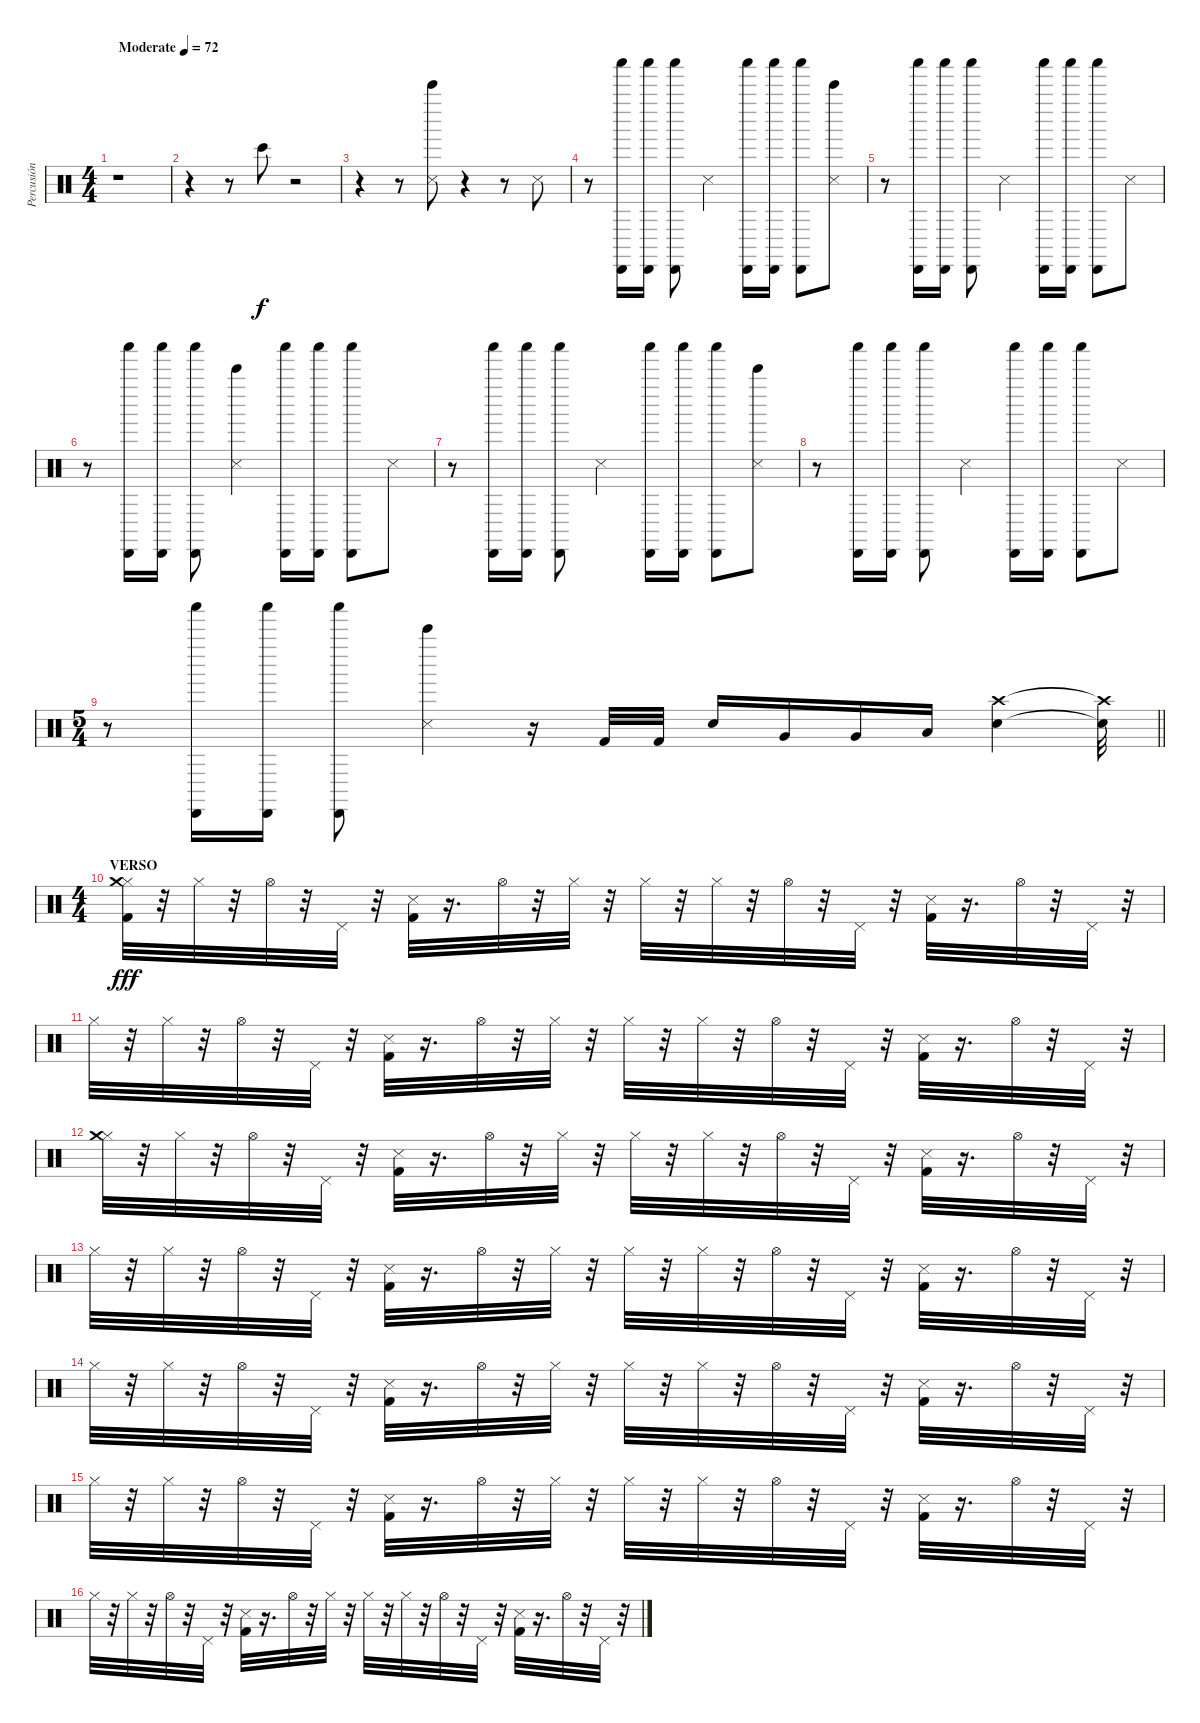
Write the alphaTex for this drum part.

\track ("Percusión" "Percusión") {instrument percussion}
\staff {score}
\articulation defaults
\ts (4 4)
\tempo (72 "Moderate")
\clef neutral
\ks c
r.1{dy f} |
r.4{volume 16} r.8 "Bongo High (hit)".8 r.2 |
r.4 r.8 ("Bell Tree (hit)" "Snare (side stick) 3").8 r.4 r.8 "Snare (side stick) 3".8 |
r.8 ("Cabasa (hit)" "Shaker (hit)").16 ("Cabasa (hit)" "Shaker (hit)").16 ("Cabasa (hit)" "Shaker (hit)").8 "Snare (side stick) 3".4 ("Shaker (hit)" "Cabasa (hit)").16 ("Shaker (hit)" "Cabasa (hit)").16 ("Shaker (hit)" "Cabasa (hit)").8 ("Snare (side stick) 3" "Bell Tree (hit)").8 |
r.8 ("Shaker (hit)" "Cabasa (hit)").16 ("Shaker (hit)" "Cabasa (hit)").16 ("Shaker (hit)" "Cabasa (hit)").8 "Snare (side stick) 3".4 ("Shaker (hit)" "Cabasa (hit)").16 ("Shaker (hit)" "Cabasa (hit)").16 ("Shaker (hit)" "Cabasa (hit)").8 "Snare (side stick) 3".8 |
r.8 ("Shaker (hit)" "Cabasa (hit)").16 ("Shaker (hit)" "Cabasa (hit)").16 ("Shaker (hit)" "Cabasa (hit)").8 ("Snare (side stick) 3" "Bell Tree (hit)").4 ("Shaker (hit)" "Cabasa (hit)").16 ("Shaker (hit)" "Cabasa (hit)").16 ("Shaker (hit)" "Cabasa (hit)").8 "Snare (side stick) 3".8 |
r.8 ("Cabasa (hit)" "Shaker (hit)").16 ("Cabasa (hit)" "Shaker (hit)").16 ("Cabasa (hit)" "Shaker (hit)").8 "Snare (side stick) 3".4 ("Shaker (hit)" "Cabasa (hit)").16 ("Shaker (hit)" "Cabasa (hit)").16 ("Shaker (hit)" "Cabasa (hit)").8 ("Snare (side stick) 3" "Bell Tree (hit)").8 |
r.8 ("Shaker (hit)" "Cabasa (hit)").16 ("Shaker (hit)" "Cabasa (hit)").16 ("Shaker (hit)" "Cabasa (hit)").8 "Snare (side stick) 3".4 ("Shaker (hit)" "Cabasa (hit)").16 ("Shaker (hit)" "Cabasa (hit)").16 ("Shaker (hit)" "Cabasa (hit)").8 "Snare (side stick) 3".8 |
\ts (5 4)
\barLineRight lightlight
r.8 ("Shaker (hit)" "Cabasa (hit)").16 ("Shaker (hit)" "Cabasa (hit)").16 ("Shaker (hit)" "Cabasa (hit)").8 ("Snare (side stick) 3" "Bell Tree (hit)").4 r.16 "Kick (hit) 2".32{volume 13} "Kick (hit) 2".32 "Snare (hit) 2".16 "Very Low Tom (hit)".16 "Very Low Tom (hit)".16 "Low Floor Tom (hit)".16 ("Crash high (hit)" "Snare (hit) 2").4 ("Crash high (hit)"{t} "Snare (hit) 2"{t}).32 |
\ts (4 4)
\section ("" "VERSO")
("Hi-Hat (closed)" "Crash medium (hit)" "Kick (hit) 2").32{dy fff} r.32 "Hi-Hat (closed)".32 r.32 "Hi-Hat (open)".32 r.32 "Pedal Hi-Hat (hit)".32 r.32 ("Kick (hit) 2" "Snare (side stick) 3").32 r.16{d} "Hi-Hat (open)".32 r.32 "Hi-Hat (closed)".32 r.32 "Hi-Hat (closed)".32 r.32 "Hi-Hat (closed)".32 r.32 "Hi-Hat (open)".32 r.32 "Pedal Hi-Hat (hit)".32 r.32 ("Kick (hit) 2" "Snare (side stick) 3").32 r.16{d} "Hi-Hat (open)".32 r.32 "Pedal Hi-Hat (hit)".32 r.32 |
"Hi-Hat (closed)".32 r.32 "Hi-Hat (closed)".32 r.32 "Hi-Hat (open)".32 r.32 "Pedal Hi-Hat (hit)".32 r.32 ("Kick (hit) 2" "Snare (side stick) 3").32 r.16{d} "Hi-Hat (open)".32 r.32 "Hi-Hat (closed)".32 r.32 "Hi-Hat (closed)".32 r.32 "Hi-Hat (closed)".32 r.32 "Hi-Hat (open)".32 r.32 "Pedal Hi-Hat (hit)".32 r.32 ("Kick (hit) 2" "Snare (side stick) 3").32 r.16{d} "Hi-Hat (open)".32 r.32 "Pedal Hi-Hat (hit)".32 r.32 |
("Hi-Hat (closed)" "Crash medium (hit)").32 r.32 "Hi-Hat (closed)".32 r.32 "Hi-Hat (open)".32 r.32 "Pedal Hi-Hat (hit)".32 r.32 ("Kick (hit) 2" "Snare (side stick) 3").32 r.16{d} "Hi-Hat (open)".32 r.32 "Hi-Hat (closed)".32 r.32 "Hi-Hat (closed)".32 r.32 "Hi-Hat (closed)".32 r.32 "Hi-Hat (open)".32 r.32 "Pedal Hi-Hat (hit)".32 r.32 ("Kick (hit) 2" "Snare (side stick) 3").32 r.16{d} "Hi-Hat (open)".32 r.32 "Pedal Hi-Hat (hit)".32 r.32 |
"Hi-Hat (closed)".32 r.32 "Hi-Hat (closed)".32 r.32 "Hi-Hat (open)".32 r.32 "Pedal Hi-Hat (hit)".32 r.32 ("Kick (hit) 2" "Snare (side stick) 3").32 r.16{d} "Hi-Hat (open)".32 r.32 "Hi-Hat (closed)".32 r.32 "Hi-Hat (closed)".32 r.32 "Hi-Hat (closed)".32 r.32 "Hi-Hat (open)".32 r.32 "Pedal Hi-Hat (hit)".32 r.32 ("Kick (hit) 2" "Snare (side stick) 3").32 r.16{d} "Hi-Hat (open)".32 r.32 "Pedal Hi-Hat (hit)".32 r.32 |
"Hi-Hat (closed)".32 r.32 "Hi-Hat (closed)".32 r.32 "Hi-Hat (open)".32 r.32 "Pedal Hi-Hat (hit)".32 r.32 ("Kick (hit) 2" "Snare (side stick) 3").32 r.16{d} "Hi-Hat (open)".32 r.32 "Hi-Hat (closed)".32 r.32 "Hi-Hat (closed)".32 r.32 "Hi-Hat (closed)".32 r.32 "Hi-Hat (open)".32 r.32 "Pedal Hi-Hat (hit)".32 r.32 ("Kick (hit) 2" "Snare (side stick) 3").32 r.16{d} "Hi-Hat (open)".32 r.32 "Pedal Hi-Hat (hit)".32 r.32 |
"Hi-Hat (closed)".32 r.32 "Hi-Hat (closed)".32 r.32 "Hi-Hat (open)".32 r.32 "Pedal Hi-Hat (hit)".32 r.32 ("Kick (hit) 2" "Snare (side stick) 3").32 r.16{d} "Hi-Hat (open)".32 r.32 "Hi-Hat (closed)".32 r.32 "Hi-Hat (closed)".32 r.32 "Hi-Hat (closed)".32 r.32 "Hi-Hat (open)".32 r.32 "Pedal Hi-Hat (hit)".32 r.32 ("Kick (hit) 2" "Snare (side stick) 3").32 r.16{d} "Hi-Hat (open)".32 r.32 "Pedal Hi-Hat (hit)".32 r.32 |
"Hi-Hat (closed)".32 r.32 "Hi-Hat (closed)".32 r.32 "Hi-Hat (open)".32 r.32 "Pedal Hi-Hat (hit)".32 r.32 ("Kick (hit) 2" "Snare (side stick) 3").32 r.16{d} "Hi-Hat (open)".32 r.32 "Hi-Hat (closed)".32 r.32 "Hi-Hat (closed)".32 r.32 "Hi-Hat (closed)".32 r.32 "Hi-Hat (open)".32 r.32 "Pedal Hi-Hat (hit)".32 r.32 ("Kick (hit) 2" "Snare (side stick) 3").32 r.16{d} "Hi-Hat (open)".32 r.32 "Pedal Hi-Hat (hit)".32 r.32
